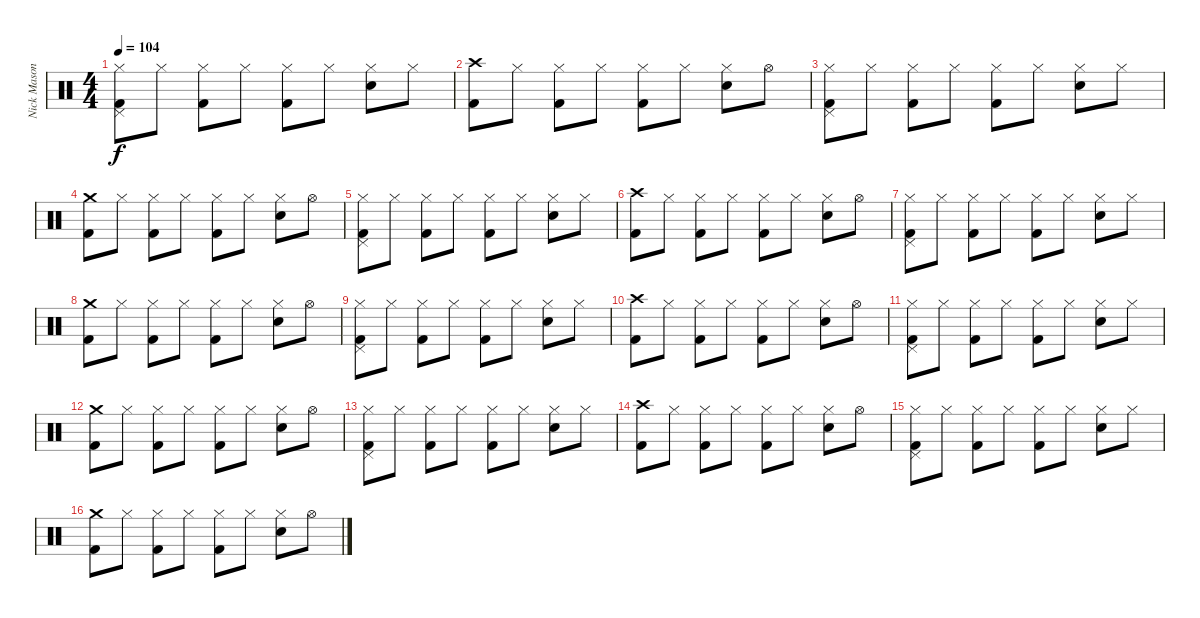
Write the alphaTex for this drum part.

\track ("Nick Mason | Ludwig Drumkit | Drums" "Nick Mason") {instrument percussion}
\staff {score}
\articulation defaults
\ts (4 4)
\tempo 104
\clef neutral
\ks c
("Hi-Hat (closed)" "Kick (hit) 2" "Pedal Hi-Hat (hit)").8{dy f} "Hi-Hat (closed)".8 ("Hi-Hat (closed)" "Kick (hit) 2").8 "Hi-Hat (closed)".8 ("Hi-Hat (closed)" "Kick (hit) 2").8 "Hi-Hat (closed)".8 ("Hi-Hat (closed)" "Snare (hit) 2").8 "Hi-Hat (closed)".8 |
("Crash high (hit)" "Kick (hit) 2").8 "Hi-Hat (closed)".8 ("Hi-Hat (closed)" "Kick (hit) 2").8 "Hi-Hat (closed)".8 ("Hi-Hat (closed)" "Kick (hit) 2").8 "Hi-Hat (closed)".8 ("Hi-Hat (closed)" "Snare (hit) 2").8 "Hi-Hat (open)".8 |
("Hi-Hat (closed)" "Kick (hit) 2" "Pedal Hi-Hat (hit)").8 "Hi-Hat (closed)".8 ("Hi-Hat (closed)" "Kick (hit) 2").8 "Hi-Hat (closed)".8 ("Hi-Hat (closed)" "Kick (hit) 2").8 "Hi-Hat (closed)".8 ("Hi-Hat (closed)" "Snare (hit) 2").8 "Hi-Hat (closed)".8 |
("Crash medium (hit)" "Kick (hit) 2").8 "Hi-Hat (closed)".8 ("Hi-Hat (closed)" "Kick (hit) 2").8 "Hi-Hat (closed)".8 ("Hi-Hat (closed)" "Kick (hit) 2").8 "Hi-Hat (closed)".8 ("Hi-Hat (closed)" "Snare (hit) 2").8 "Hi-Hat (open)".8 |
("Hi-Hat (closed)" "Kick (hit) 2" "Pedal Hi-Hat (hit)").8 "Hi-Hat (closed)".8 ("Hi-Hat (closed)" "Kick (hit) 2").8 "Hi-Hat (closed)".8 ("Hi-Hat (closed)" "Kick (hit) 2").8 "Hi-Hat (closed)".8 ("Hi-Hat (closed)" "Snare (hit) 2").8 "Hi-Hat (closed)".8 |
("Crash high (hit)" "Kick (hit) 2").8 "Hi-Hat (closed)".8 ("Hi-Hat (closed)" "Kick (hit) 2").8 "Hi-Hat (closed)".8 ("Hi-Hat (closed)" "Kick (hit) 2").8 "Hi-Hat (closed)".8 ("Hi-Hat (closed)" "Snare (hit) 2").8 "Hi-Hat (open)".8 |
("Hi-Hat (closed)" "Kick (hit) 2" "Pedal Hi-Hat (hit)").8 "Hi-Hat (closed)".8 ("Hi-Hat (closed)" "Kick (hit) 2").8 "Hi-Hat (closed)".8 ("Hi-Hat (closed)" "Kick (hit) 2").8 "Hi-Hat (closed)".8 ("Hi-Hat (closed)" "Snare (hit) 2").8 "Hi-Hat (closed)".8 |
("Crash medium (hit)" "Kick (hit) 2").8 "Hi-Hat (closed)".8 ("Hi-Hat (closed)" "Kick (hit) 2").8 "Hi-Hat (closed)".8 ("Hi-Hat (closed)" "Kick (hit) 2").8 "Hi-Hat (closed)".8 ("Hi-Hat (closed)" "Snare (hit) 2").8 "Hi-Hat (open)".8 |
("Hi-Hat (closed)" "Kick (hit) 2" "Pedal Hi-Hat (hit)").8 "Hi-Hat (closed)".8 ("Hi-Hat (closed)" "Kick (hit) 2").8 "Hi-Hat (closed)".8 ("Hi-Hat (closed)" "Kick (hit) 2").8 "Hi-Hat (closed)".8 ("Hi-Hat (closed)" "Snare (hit) 2").8 "Hi-Hat (closed)".8 |
("Crash high (hit)" "Kick (hit) 2").8 "Hi-Hat (closed)".8 ("Hi-Hat (closed)" "Kick (hit) 2").8 "Hi-Hat (closed)".8 ("Hi-Hat (closed)" "Kick (hit) 2").8 "Hi-Hat (closed)".8 ("Hi-Hat (closed)" "Snare (hit) 2").8 "Hi-Hat (open)".8 |
("Hi-Hat (closed)" "Kick (hit) 2" "Pedal Hi-Hat (hit)").8 "Hi-Hat (closed)".8 ("Hi-Hat (closed)" "Kick (hit) 2").8 "Hi-Hat (closed)".8 ("Hi-Hat (closed)" "Kick (hit) 2").8 "Hi-Hat (closed)".8 ("Hi-Hat (closed)" "Snare (hit) 2").8 "Hi-Hat (closed)".8 |
("Crash medium (hit)" "Kick (hit) 2").8 "Hi-Hat (closed)".8 ("Hi-Hat (closed)" "Kick (hit) 2").8 "Hi-Hat (closed)".8 ("Hi-Hat (closed)" "Kick (hit) 2").8 "Hi-Hat (closed)".8 ("Hi-Hat (closed)" "Snare (hit) 2").8 "Hi-Hat (open)".8 |
("Hi-Hat (closed)" "Kick (hit) 2" "Pedal Hi-Hat (hit)").8 "Hi-Hat (closed)".8 ("Hi-Hat (closed)" "Kick (hit) 2").8 "Hi-Hat (closed)".8 ("Hi-Hat (closed)" "Kick (hit) 2").8 "Hi-Hat (closed)".8 ("Hi-Hat (closed)" "Snare (hit) 2").8 "Hi-Hat (closed)".8 |
("Crash high (hit)" "Kick (hit) 2").8 "Hi-Hat (closed)".8 ("Hi-Hat (closed)" "Kick (hit) 2").8 "Hi-Hat (closed)".8 ("Hi-Hat (closed)" "Kick (hit) 2").8 "Hi-Hat (closed)".8 ("Hi-Hat (closed)" "Snare (hit) 2").8 "Hi-Hat (open)".8 |
("Hi-Hat (closed)" "Kick (hit) 2" "Pedal Hi-Hat (hit)").8 "Hi-Hat (closed)".8 ("Hi-Hat (closed)" "Kick (hit) 2").8 "Hi-Hat (closed)".8 ("Hi-Hat (closed)" "Kick (hit) 2").8 "Hi-Hat (closed)".8 ("Hi-Hat (closed)" "Snare (hit) 2").8 "Hi-Hat (closed)".8 |
("Crash medium (hit)" "Kick (hit) 2").8 "Hi-Hat (closed)".8 ("Hi-Hat (closed)" "Kick (hit) 2").8 "Hi-Hat (closed)".8 ("Hi-Hat (closed)" "Kick (hit) 2").8 "Hi-Hat (closed)".8 ("Hi-Hat (closed)" "Snare (hit) 2").8 "Hi-Hat (open)".8
